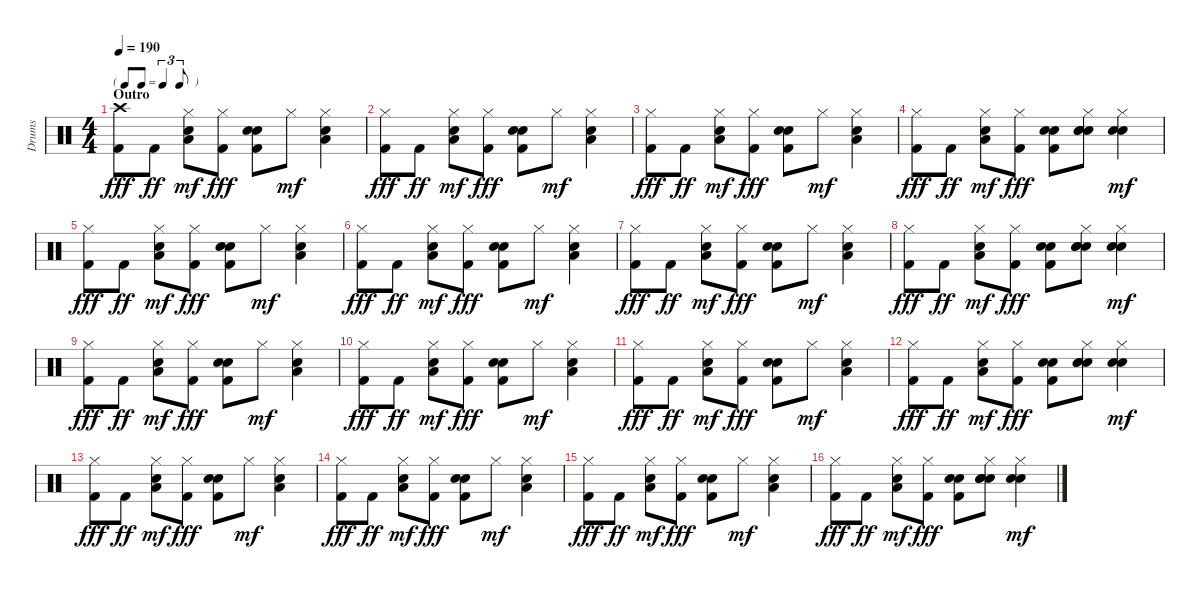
\track ("Drums" "Drums") {instrument percussion}
\staff {score}
\articulation defaults
\ts (4 4)
\tf triplet8th
\section ("" "Outro")
\tempo 190
\clef neutral
\ks c
("Crash high (hit)" "Kick (hit) 2").8{dy fff} "Kick (hit) 2".8{dy ff} ("Hi-Hat (closed)" "Low Tom (hit)" "Hand Clap (hit)").8{dy mf} ("Hi-Hat (closed)" "Kick (hit) 2").8{dy fff} ("Kick (hit) 2" "Hand Clap (hit)" "Hand Clap (hit)").8 "Hi-Hat (closed)".8{dy mf} ("Hi-Hat (closed)" "Low Tom (hit)" "Hand Clap (hit)").4 |
("Hi-Hat (closed)" "Kick (hit) 2").8{dy fff} "Kick (hit) 2".8{dy ff} ("Hi-Hat (closed)" "Low Tom (hit)" "Hand Clap (hit)").8{dy mf} ("Hi-Hat (closed)" "Kick (hit) 2").8{dy fff} ("Kick (hit) 2" "Hand Clap (hit)" "Hand Clap (hit)").8 "Hi-Hat (closed)".8{dy mf} ("Hi-Hat (closed)" "Low Tom (hit)" "Hand Clap (hit)").4 |
("Hi-Hat (closed)" "Kick (hit) 2").8{dy fff} "Kick (hit) 2".8{dy ff} ("Hi-Hat (closed)" "Low Tom (hit)" "Hand Clap (hit)").8{dy mf} ("Hi-Hat (closed)" "Kick (hit) 2").8{dy fff} ("Kick (hit) 2" "Hand Clap (hit)" "Hand Clap (hit)").8 "Hi-Hat (closed)".8{dy mf} ("Hi-Hat (closed)" "Low Tom (hit)" "Hand Clap (hit)").4 |
("Hi-Hat (closed)" "Kick (hit) 2").8{dy fff} "Kick (hit) 2".8{dy ff} ("Hi-Hat (closed)" "Low Tom (hit)" "Hand Clap (hit)").8{dy mf} ("Hi-Hat (closed)" "Kick (hit) 2").8{dy fff} ("Kick (hit) 2" "Hand Clap (hit)" "Hand Clap (hit)").8 ("Hi-Hat (closed)" "Snare (hit) 2" "Hand Clap (hit)" "Hand Clap (hit)").8 ("Hi-Hat (closed)" "Snare (hit) 2" "Hand Clap (hit)").4{dy mf} |
("Hi-Hat (closed)" "Kick (hit) 2").8{dy fff} "Kick (hit) 2".8{dy ff} ("Hi-Hat (closed)" "Low Tom (hit)" "Hand Clap (hit)").8{dy mf} ("Hi-Hat (closed)" "Kick (hit) 2").8{dy fff} ("Kick (hit) 2" "Hand Clap (hit)" "Hand Clap (hit)").8 "Hi-Hat (closed)".8{dy mf} ("Hi-Hat (closed)" "Low Tom (hit)" "Hand Clap (hit)").4 |
("Hi-Hat (closed)" "Kick (hit) 2").8{dy fff} "Kick (hit) 2".8{dy ff} ("Hi-Hat (closed)" "Low Tom (hit)" "Hand Clap (hit)").8{dy mf} ("Hi-Hat (closed)" "Kick (hit) 2").8{dy fff} ("Kick (hit) 2" "Hand Clap (hit)" "Hand Clap (hit)").8 "Hi-Hat (closed)".8{dy mf} ("Hi-Hat (closed)" "Low Tom (hit)" "Hand Clap (hit)").4 |
("Hi-Hat (closed)" "Kick (hit) 2").8{dy fff} "Kick (hit) 2".8{dy ff} ("Hi-Hat (closed)" "Low Tom (hit)" "Hand Clap (hit)").8{dy mf} ("Hi-Hat (closed)" "Kick (hit) 2").8{dy fff} ("Kick (hit) 2" "Hand Clap (hit)" "Hand Clap (hit)").8 "Hi-Hat (closed)".8{dy mf} ("Hi-Hat (closed)" "Low Tom (hit)" "Hand Clap (hit)").4 |
("Hi-Hat (closed)" "Kick (hit) 2").8{dy fff} "Kick (hit) 2".8{dy ff} ("Hi-Hat (closed)" "Low Tom (hit)" "Hand Clap (hit)").8{dy mf} ("Hi-Hat (closed)" "Kick (hit) 2").8{dy fff} ("Kick (hit) 2" "Hand Clap (hit)" "Hand Clap (hit)").8 ("Hi-Hat (closed)" "Snare (hit) 2" "Hand Clap (hit)" "Hand Clap (hit)").8 ("Hi-Hat (closed)" "Snare (hit) 2" "Hand Clap (hit)").4{dy mf} |
("Hi-Hat (closed)" "Kick (hit) 2").8{dy fff} "Kick (hit) 2".8{dy ff} ("Hi-Hat (closed)" "Low Tom (hit)" "Hand Clap (hit)").8{dy mf} ("Hi-Hat (closed)" "Kick (hit) 2").8{dy fff} ("Kick (hit) 2" "Hand Clap (hit)" "Hand Clap (hit)").8 "Hi-Hat (closed)".8{dy mf} ("Hi-Hat (closed)" "Low Tom (hit)" "Hand Clap (hit)").4 |
("Hi-Hat (closed)" "Kick (hit) 2").8{dy fff} "Kick (hit) 2".8{dy ff} ("Hi-Hat (closed)" "Low Tom (hit)" "Hand Clap (hit)").8{dy mf} ("Hi-Hat (closed)" "Kick (hit) 2").8{dy fff} ("Kick (hit) 2" "Hand Clap (hit)" "Hand Clap (hit)").8 "Hi-Hat (closed)".8{dy mf} ("Hi-Hat (closed)" "Low Tom (hit)" "Hand Clap (hit)").4 |
("Hi-Hat (closed)" "Kick (hit) 2").8{dy fff} "Kick (hit) 2".8{dy ff} ("Hi-Hat (closed)" "Low Tom (hit)" "Hand Clap (hit)").8{dy mf} ("Hi-Hat (closed)" "Kick (hit) 2").8{dy fff} ("Kick (hit) 2" "Hand Clap (hit)" "Hand Clap (hit)").8 "Hi-Hat (closed)".8{dy mf} ("Hi-Hat (closed)" "Low Tom (hit)" "Hand Clap (hit)").4 |
("Hi-Hat (closed)" "Kick (hit) 2").8{dy fff} "Kick (hit) 2".8{dy ff} ("Hi-Hat (closed)" "Low Tom (hit)" "Hand Clap (hit)").8{dy mf} ("Hi-Hat (closed)" "Kick (hit) 2").8{dy fff} ("Kick (hit) 2" "Hand Clap (hit)" "Hand Clap (hit)").8 ("Hi-Hat (closed)" "Snare (hit) 2" "Hand Clap (hit)" "Hand Clap (hit)").8 ("Hi-Hat (closed)" "Snare (hit) 2" "Hand Clap (hit)").4{dy mf} |
("Hi-Hat (closed)" "Kick (hit) 2").8{dy fff} "Kick (hit) 2".8{dy ff} ("Hi-Hat (closed)" "Low Tom (hit)" "Hand Clap (hit)").8{dy mf} ("Hi-Hat (closed)" "Kick (hit) 2").8{dy fff} ("Kick (hit) 2" "Hand Clap (hit)" "Hand Clap (hit)").8 "Hi-Hat (closed)".8{dy mf} ("Hi-Hat (closed)" "Low Tom (hit)" "Hand Clap (hit)").4 |
("Hi-Hat (closed)" "Kick (hit) 2").8{dy fff} "Kick (hit) 2".8{dy ff} ("Hi-Hat (closed)" "Low Tom (hit)" "Hand Clap (hit)").8{dy mf} ("Hi-Hat (closed)" "Kick (hit) 2").8{dy fff} ("Kick (hit) 2" "Hand Clap (hit)" "Hand Clap (hit)").8 "Hi-Hat (closed)".8{dy mf} ("Hi-Hat (closed)" "Low Tom (hit)" "Hand Clap (hit)").4 |
("Hi-Hat (closed)" "Kick (hit) 2").8{dy fff} "Kick (hit) 2".8{dy ff} ("Hi-Hat (closed)" "Low Tom (hit)" "Hand Clap (hit)").8{dy mf} ("Hi-Hat (closed)" "Kick (hit) 2").8{dy fff} ("Kick (hit) 2" "Hand Clap (hit)" "Hand Clap (hit)").8 "Hi-Hat (closed)".8{dy mf} ("Hi-Hat (closed)" "Low Tom (hit)" "Hand Clap (hit)").4 |
("Hi-Hat (closed)" "Kick (hit) 2").8{dy fff} "Kick (hit) 2".8{dy ff} ("Hi-Hat (closed)" "Low Tom (hit)" "Hand Clap (hit)").8{dy mf} ("Hi-Hat (closed)" "Kick (hit) 2").8{dy fff} ("Kick (hit) 2" "Hand Clap (hit)" "Hand Clap (hit)").8 ("Hi-Hat (closed)" "Snare (hit) 2" "Hand Clap (hit)" "Hand Clap (hit)").8 ("Hi-Hat (closed)" "Snare (hit) 2" "Hand Clap (hit)").4{dy mf}
